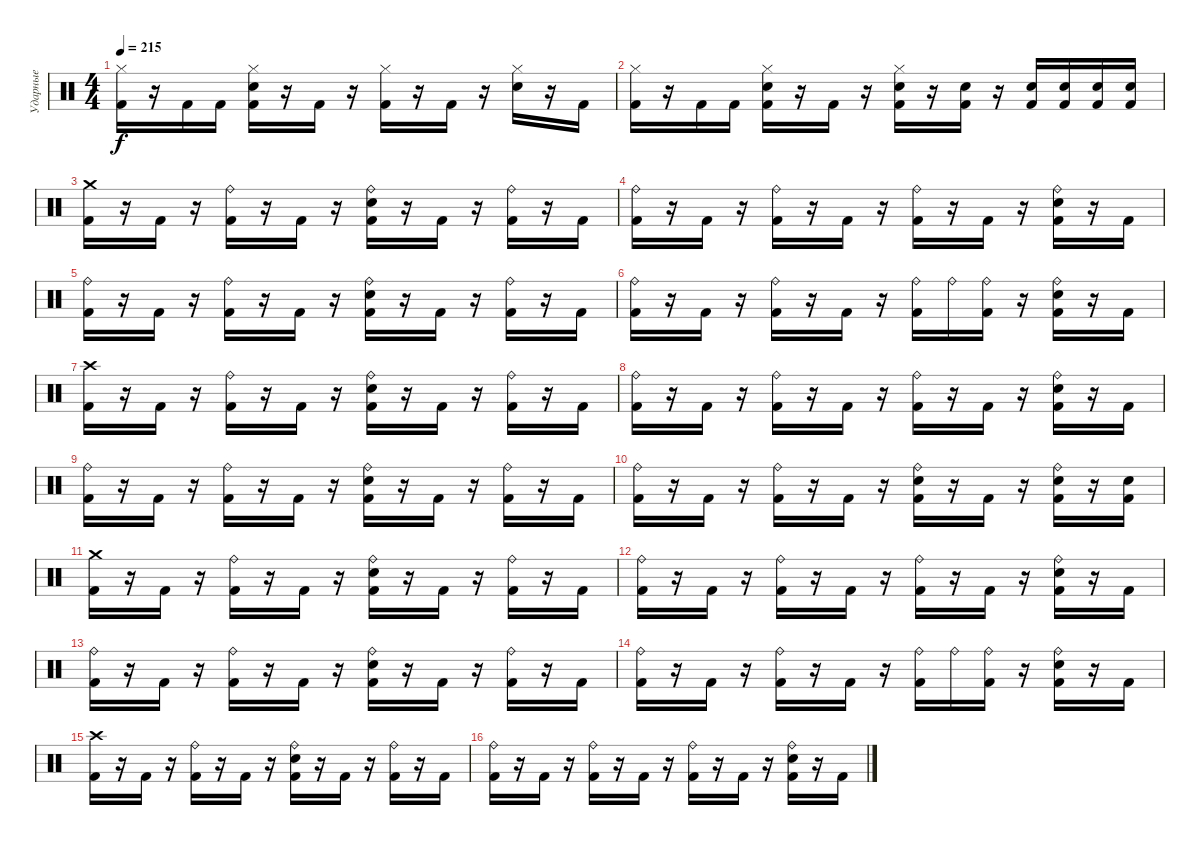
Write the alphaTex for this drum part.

\track ("Ударные" "Ударные") {instrument percussion}
\staff {score}
\articulation defaults
\ts (4 4)
\tempo 215
\clef neutral
\ks c
("Hi-Hat (closed)" "Kick (hit) 2").16{dy f} r.16 "Kick (hit) 2".16 "Kick (hit) 2".16 ("Hi-Hat (closed)" "Snare (hit) 2" "Kick (hit) 2").16 r.16 "Kick (hit) 2".16 r.16 ("Hi-Hat (closed)" "Kick (hit) 2").16 r.16 "Kick (hit) 2".16 r.16 ("Hi-Hat (closed)" "Snare (hit) 2").16 r.16 "Kick (hit) 2".16 |
("Hi-Hat (closed)" "Kick (hit) 2").16 r.16 "Kick (hit) 2".16 "Kick (hit) 2".16 ("Hi-Hat (closed)" "Snare (hit) 2" "Kick (hit) 2").16 r.16 "Kick (hit) 2".16 r.16 ("Hi-Hat (closed)" "Snare (hit) 2" "Kick (hit) 2").16 r.16 ("Snare (hit) 2" "Kick (hit) 2").16 r.16 ("Snare (hit) 2" "Kick (hit) 2").16 ("Snare (hit) 2" "Kick (hit) 2").16 ("Snare (hit) 2" "Kick (hit) 2").16 ("Snare (hit) 2" "Kick (hit) 2").16 |
("Crash medium (hit)" "Kick (hit) 2").16 r.16 "Kick (hit) 2".16 r.16 ("Ride (bell)" "Kick (hit) 2").16 r.16 "Kick (hit) 2".16 r.16 ("Ride (bell)" "Snare (hit) 2" "Kick (hit) 2").16 r.16 "Kick (hit) 2".16 r.16 ("Ride (bell)" "Kick (hit) 2").16 r.16 "Kick (hit) 2".16 |
("Ride (bell)" "Kick (hit) 2").16 r.16 "Kick (hit) 2".16 r.16 ("Ride (bell)" "Kick (hit) 2").16 r.16 "Kick (hit) 2".16 r.16 ("Ride (bell)" "Kick (hit) 2").16 r.16 "Kick (hit) 2".16 r.16 ("Ride (bell)" "Snare (hit) 2" "Kick (hit) 2").16 r.16 "Kick (hit) 2".16 |
("Ride (bell)" "Kick (hit) 2").16 r.16 "Kick (hit) 2".16 r.16 ("Ride (bell)" "Kick (hit) 2").16 r.16 "Kick (hit) 2".16 r.16 ("Ride (bell)" "Snare (hit) 2" "Kick (hit) 2").16 r.16 "Kick (hit) 2".16 r.16 ("Ride (bell)" "Kick (hit) 2").16 r.16 "Kick (hit) 2".16 |
("Ride (bell)" "Kick (hit) 2").16 r.16 "Kick (hit) 2".16 r.16 ("Ride (bell)" "Kick (hit) 2").16 r.16 "Kick (hit) 2".16 r.16 ("Ride (bell)" "Kick (hit) 2").16 "Ride (bell)".16 ("Ride (bell)" "Kick (hit) 2").16 r.16 ("Ride (bell)" "Snare (hit) 2" "Kick (hit) 2").16 r.16 "Kick (hit) 2".16 |
("Crash high (hit)" "Kick (hit) 2").16 r.16 "Kick (hit) 2".16 r.16 ("Ride (bell)" "Kick (hit) 2").16 r.16 "Kick (hit) 2".16 r.16 ("Ride (bell)" "Snare (hit) 2" "Kick (hit) 2").16 r.16 "Kick (hit) 2".16 r.16 ("Ride (bell)" "Kick (hit) 2").16 r.16 "Kick (hit) 2".16 |
("Ride (bell)" "Kick (hit) 2").16 r.16 "Kick (hit) 2".16 r.16 ("Ride (bell)" "Kick (hit) 2").16 r.16 "Kick (hit) 2".16 r.16 ("Ride (bell)" "Kick (hit) 2").16 r.16 "Kick (hit) 2".16 r.16 ("Ride (bell)" "Snare (hit) 2" "Kick (hit) 2").16 r.16 "Kick (hit) 2".16 |
("Ride (bell)" "Kick (hit) 2").16 r.16 "Kick (hit) 2".16 r.16 ("Ride (bell)" "Kick (hit) 2").16 r.16 "Kick (hit) 2".16 r.16 ("Ride (bell)" "Snare (hit) 2" "Kick (hit) 2").16 r.16 "Kick (hit) 2".16 r.16 ("Ride (bell)" "Kick (hit) 2").16 r.16 "Kick (hit) 2".16 |
("Ride (bell)" "Kick (hit) 2").16 r.16 "Kick (hit) 2".16 r.16 ("Ride (bell)" "Kick (hit) 2").16 r.16 "Kick (hit) 2".16 r.16 ("Ride (bell)" "Snare (hit) 2" "Kick (hit) 2").16 r.16 "Kick (hit) 2".16 r.16 ("Ride (bell)" "Snare (hit) 2" "Kick (hit) 2").16 r.16 ("Snare (hit) 2" "Kick (hit) 2").16 |
("Crash medium (hit)" "Kick (hit) 2").16 r.16 "Kick (hit) 2".16 r.16 ("Ride (bell)" "Kick (hit) 2").16 r.16 "Kick (hit) 2".16 r.16 ("Ride (bell)" "Snare (hit) 2" "Kick (hit) 2").16 r.16 "Kick (hit) 2".16 r.16 ("Ride (bell)" "Kick (hit) 2").16 r.16 "Kick (hit) 2".16 |
("Ride (bell)" "Kick (hit) 2").16 r.16 "Kick (hit) 2".16 r.16 ("Ride (bell)" "Kick (hit) 2").16 r.16 "Kick (hit) 2".16 r.16 ("Ride (bell)" "Kick (hit) 2").16 r.16 "Kick (hit) 2".16 r.16 ("Ride (bell)" "Snare (hit) 2" "Kick (hit) 2").16 r.16 "Kick (hit) 2".16 |
("Ride (bell)" "Kick (hit) 2").16 r.16 "Kick (hit) 2".16 r.16 ("Ride (bell)" "Kick (hit) 2").16 r.16 "Kick (hit) 2".16 r.16 ("Ride (bell)" "Snare (hit) 2" "Kick (hit) 2").16 r.16 "Kick (hit) 2".16 r.16 ("Ride (bell)" "Kick (hit) 2").16 r.16 "Kick (hit) 2".16 |
("Ride (bell)" "Kick (hit) 2").16 r.16 "Kick (hit) 2".16 r.16 ("Ride (bell)" "Kick (hit) 2").16 r.16 "Kick (hit) 2".16 r.16 ("Ride (bell)" "Kick (hit) 2").16 "Ride (bell)".16 ("Ride (bell)" "Kick (hit) 2").16 r.16 ("Ride (bell)" "Snare (hit) 2" "Kick (hit) 2").16 r.16 "Kick (hit) 2".16 |
("Crash high (hit)" "Kick (hit) 2").16 r.16 "Kick (hit) 2".16 r.16 ("Ride (bell)" "Kick (hit) 2").16 r.16 "Kick (hit) 2".16 r.16 ("Ride (bell)" "Snare (hit) 2" "Kick (hit) 2").16 r.16 "Kick (hit) 2".16 r.16 ("Ride (bell)" "Kick (hit) 2").16 r.16 "Kick (hit) 2".16 |
("Ride (bell)" "Kick (hit) 2").16 r.16 "Kick (hit) 2".16 r.16 ("Ride (bell)" "Kick (hit) 2").16 r.16 "Kick (hit) 2".16 r.16 ("Ride (bell)" "Kick (hit) 2").16 r.16 "Kick (hit) 2".16 r.16 ("Ride (bell)" "Snare (hit) 2" "Kick (hit) 2").16 r.16 "Kick (hit) 2".16
